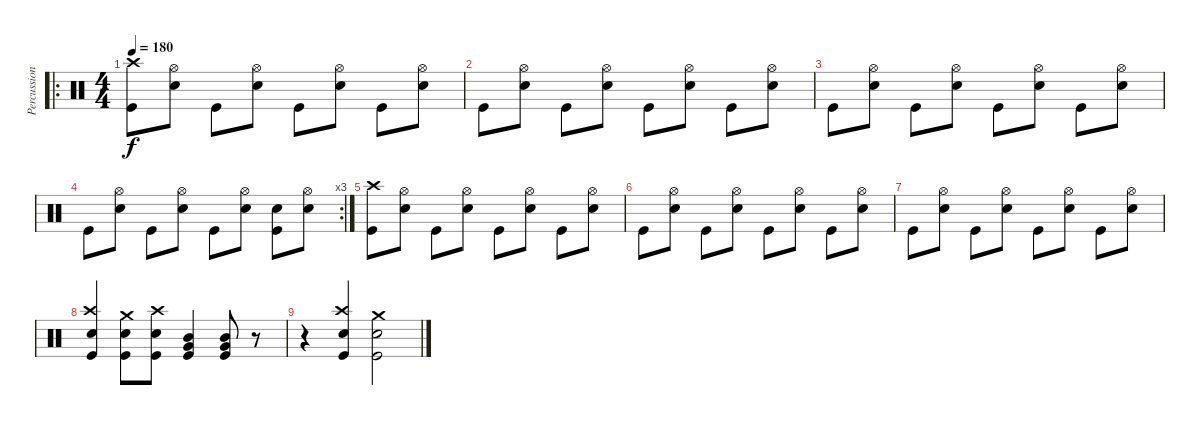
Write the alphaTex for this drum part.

\track ("Percussion" "Percussion") {instrument percussion}
\staff {score}
\articulation defaults
\ro
\ts (4 4)
\tempo 180
\clef neutral
\ks c
("Kick (hit)" "Crash high (hit)").8{dy f} ("Snare (hit) 2" "Hi-Hat (open)").8 "Kick (hit)".8 ("Snare (hit) 2" "Hi-Hat (open)").8 "Kick (hit)".8 ("Snare (hit) 2" "Hi-Hat (open)").8 "Kick (hit)".8 ("Snare (hit) 2" "Hi-Hat (open)").8 |
"Kick (hit)".8 ("Snare (hit) 2" "Hi-Hat (open)").8 "Kick (hit)".8 ("Snare (hit) 2" "Hi-Hat (open)").8 "Kick (hit)".8 ("Snare (hit) 2" "Hi-Hat (open)").8 "Kick (hit)".8 ("Snare (hit) 2" "Hi-Hat (open)").8 |
"Kick (hit)".8 ("Snare (hit) 2" "Hi-Hat (open)").8 "Kick (hit)".8 ("Snare (hit) 2" "Hi-Hat (open)").8 "Kick (hit)".8 ("Snare (hit) 2" "Hi-Hat (open)").8 "Kick (hit)".8 ("Snare (hit) 2" "Hi-Hat (open)").8 |
\rc 3 "Kick (hit)".8
("Snare (hit) 2" "Hi-Hat (open)").8 "Kick (hit)".8 ("Snare (hit) 2" "Hi-Hat (open)").8 "Kick (hit)".8 ("Snare (hit) 2" "Hi-Hat (open)").8 ("Kick (hit)" "Snare (hit) 2").8 ("Snare (hit) 2" "Hi-Hat (open)").8 |
("Kick (hit)" "Crash high (hit)").8 ("Snare (hit) 2" "Hi-Hat (open)").8 "Kick (hit)".8 ("Snare (hit) 2" "Hi-Hat (open)").8 "Kick (hit)".8 ("Snare (hit) 2" "Hi-Hat (open)").8 "Kick (hit)".8 ("Snare (hit) 2" "Hi-Hat (open)").8 |
"Kick (hit)".8 ("Snare (hit) 2" "Hi-Hat (open)").8 "Kick (hit)".8 ("Snare (hit) 2" "Hi-Hat (open)").8 "Kick (hit)".8 ("Snare (hit) 2" "Hi-Hat (open)").8 "Kick (hit)".8 ("Snare (hit) 2" "Hi-Hat (open)").8 |
"Kick (hit)".8 ("Snare (hit) 2" "Hi-Hat (open)").8 "Kick (hit)".8 ("Snare (hit) 2" "Hi-Hat (open)").8 "Kick (hit)".8 ("Snare (hit) 2" "Hi-Hat (open)").8 "Kick (hit)".8 ("Snare (hit) 2" "Hi-Hat (open)").8 |
("Kick (hit)" "Snare (hit) 2" "Crash high (hit)").4 ("Kick (hit)" "Snare (hit) 2" "Crash medium (hit)").8 ("Kick (hit)" "Snare (hit) 2" "Crash high (hit)").8 ("Kick (hit)" "Mid Tom (hit)" "Very Low Tom (hit)").4 ("Kick (hit)" "Mid Tom (hit)" "Very Low Tom (hit)").8 r.8 |
r.4 ("Kick (hit)" "Snare (hit) 2" "Crash high (hit)").4 ("Kick (hit)" "Snare (hit) 2" "Crash medium (hit)").2
